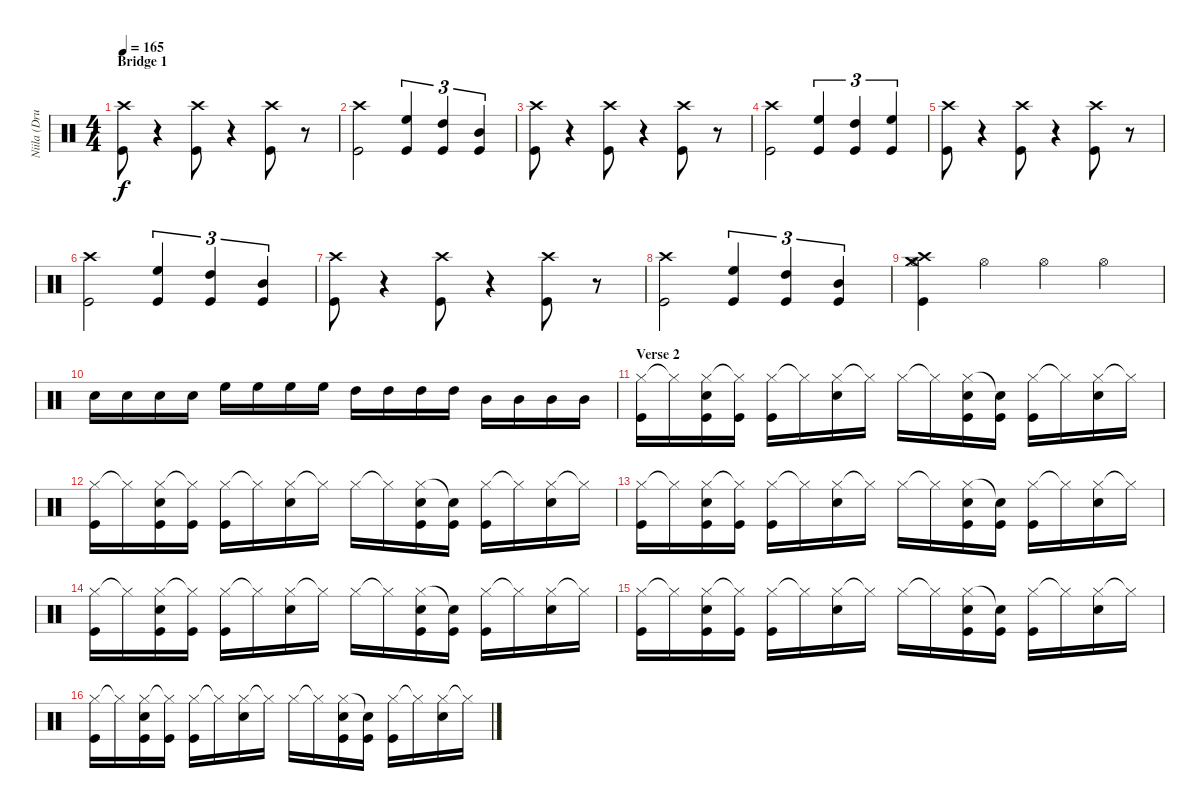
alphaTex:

\track ("Niila (Drums)" "Niila (Dru") {instrument percussion}
\staff {score}
\articulation defaults
\ts (4 4)
\section ("" "Bridge 1")
\tempo 165
\clef neutral
\ks c
("Crash high (hit)" "Kick (hit)").8{dy f} r.4 ("Crash high (hit)" "Kick (hit)").8 r.4 ("Crash high (hit)" "Kick (hit)").8 r.8 |
("Crash high (hit)" "Kick (hit)").2 ("High Floor Tom (hit)" "Kick (hit)").4{tu (3 2)} ("High Tom (hit)" "Kick (hit)").4{tu (3 2)} ("Mid Tom (hit)" "Kick (hit)").4{tu (3 2)} |
("Crash high (hit)" "Kick (hit)").8 r.4 ("Crash high (hit)" "Kick (hit)").8 r.4 ("Crash high (hit)" "Kick (hit)").8 r.8 |
("Crash high (hit)" "Kick (hit)").2 ("High Floor Tom (hit)" "Kick (hit)").4{tu (3 2)} ("High Tom (hit)" "Kick (hit)").4{tu (3 2)} ("High Floor Tom (hit)" "Kick (hit)").4{tu (3 2)} |
("Crash high (hit)" "Kick (hit)").8 r.4 ("Crash high (hit)" "Kick (hit)").8 r.4 ("Crash high (hit)" "Kick (hit)").8 r.8 |
("Crash high (hit)" "Kick (hit)").2 ("High Floor Tom (hit)" "Kick (hit)").4{tu (3 2)} ("High Tom (hit)" "Kick (hit)").4{tu (3 2)} ("Mid Tom (hit)" "Kick (hit)").4{tu (3 2)} |
("Crash high (hit)" "Kick (hit)").8 r.4 ("Crash high (hit)" "Kick (hit)").8 r.4 ("Crash high (hit)" "Kick (hit)").8 r.8 |
("Crash high (hit)" "Kick (hit)").2 ("High Floor Tom (hit)" "Kick (hit)").4{tu (3 2)} ("High Tom (hit)" "Kick (hit)").4{tu (3 2)} ("Mid Tom (hit)" "Kick (hit)").4{tu (3 2)} |
("Crash medium (hit)" "Crash high (hit)" "Hi-Hat (open)" "Kick (hit)").4 "Hi-Hat (open)".4 "Hi-Hat (open)".4 "Hi-Hat (open)".4 |
"Snare (hit) 2".16 "Snare (hit) 2".16 "Snare (hit) 2".16 "Snare (hit) 2".16 "High Floor Tom (hit)".16 "High Floor Tom (hit)".16 "High Floor Tom (hit)".16 "High Floor Tom (hit)".16 "High Tom (hit)".16 "High Tom (hit)".16 "High Tom (hit)".16 "High Tom (hit)".16 "Mid Tom (hit)".16 "Mid Tom (hit)".16 "Mid Tom (hit)".16 "Mid Tom (hit)".16 |
\section ("" "Verse 2")
("Hi-Hat (closed)" "Kick (hit)").16 "Hi-Hat (closed)"{t}.16 ("Hi-Hat (closed)" "Snare (hit) 2" "Kick (hit)").16 ("Hi-Hat (closed)"{t} "Kick (hit)").16 ("Hi-Hat (closed)" "Kick (hit)").16 "Hi-Hat (closed)"{t}.16 ("Hi-Hat (closed)" "Snare (hit) 2").16 "Hi-Hat (closed)"{t}.16 "Hi-Hat (closed)".16 "Hi-Hat (closed)"{t}.16 ("Hi-Hat (closed)" "Snare (hit) 2" "Kick (hit)").16 ("Snare (hit)"{t} "Kick (hit)").16 ("Hi-Hat (closed)" "Kick (hit)").16 "Hi-Hat (closed)"{t}.16 ("Hi-Hat (closed)" "Snare (hit) 2").16 "Hi-Hat (closed)"{t}.16 |
("Hi-Hat (closed)" "Kick (hit)").16 "Hi-Hat (closed)"{t}.16 ("Hi-Hat (closed)" "Snare (hit) 2" "Kick (hit)").16 ("Hi-Hat (closed)"{t} "Kick (hit)").16 ("Hi-Hat (closed)" "Kick (hit)").16 "Hi-Hat (closed)"{t}.16 ("Hi-Hat (closed)" "Snare (hit) 2").16 "Hi-Hat (closed)"{t}.16 "Hi-Hat (closed)".16 "Hi-Hat (closed)"{t}.16 ("Hi-Hat (closed)" "Snare (hit) 2" "Kick (hit)").16 ("Snare (hit)"{t} "Kick (hit)").16 ("Hi-Hat (closed)" "Kick (hit)").16 "Hi-Hat (closed)"{t}.16 ("Hi-Hat (closed)" "Snare (hit) 2").16 "Hi-Hat (closed)"{t}.16 |
("Hi-Hat (closed)" "Kick (hit)").16 "Hi-Hat (closed)"{t}.16 ("Hi-Hat (closed)" "Snare (hit) 2" "Kick (hit)").16 ("Hi-Hat (closed)"{t} "Kick (hit)").16 ("Hi-Hat (closed)" "Kick (hit)").16 "Hi-Hat (closed)"{t}.16 ("Hi-Hat (closed)" "Snare (hit) 2").16 "Hi-Hat (closed)"{t}.16 "Hi-Hat (closed)".16 "Hi-Hat (closed)"{t}.16 ("Hi-Hat (closed)" "Snare (hit) 2" "Kick (hit)").16 ("Snare (hit)"{t} "Kick (hit)").16 ("Hi-Hat (closed)" "Kick (hit)").16 "Hi-Hat (closed)"{t}.16 ("Hi-Hat (closed)" "Snare (hit) 2").16 "Hi-Hat (closed)"{t}.16 |
("Hi-Hat (closed)" "Kick (hit)").16 "Hi-Hat (closed)"{t}.16 ("Hi-Hat (closed)" "Snare (hit) 2" "Kick (hit)").16 ("Hi-Hat (closed)"{t} "Kick (hit)").16 ("Hi-Hat (closed)" "Kick (hit)").16 "Hi-Hat (closed)"{t}.16 ("Hi-Hat (closed)" "Snare (hit) 2").16 "Hi-Hat (closed)"{t}.16 "Hi-Hat (closed)".16 "Hi-Hat (closed)"{t}.16 ("Hi-Hat (closed)" "Snare (hit) 2" "Kick (hit)").16 ("Snare (hit)"{t} "Kick (hit)").16 ("Hi-Hat (closed)" "Kick (hit)").16 "Hi-Hat (closed)"{t}.16 ("Hi-Hat (closed)" "Snare (hit) 2").16 "Hi-Hat (closed)"{t}.16 |
("Hi-Hat (closed)" "Kick (hit)").16 "Hi-Hat (closed)"{t}.16 ("Hi-Hat (closed)" "Snare (hit) 2" "Kick (hit)").16 ("Hi-Hat (closed)"{t} "Kick (hit)").16 ("Hi-Hat (closed)" "Kick (hit)").16 "Hi-Hat (closed)"{t}.16 ("Hi-Hat (closed)" "Snare (hit) 2").16 "Hi-Hat (closed)"{t}.16 "Hi-Hat (closed)".16 "Hi-Hat (closed)"{t}.16 ("Hi-Hat (closed)" "Snare (hit) 2" "Kick (hit)").16 ("Snare (hit)"{t} "Kick (hit)").16 ("Hi-Hat (closed)" "Kick (hit)").16 "Hi-Hat (closed)"{t}.16 ("Hi-Hat (closed)" "Snare (hit) 2").16 "Hi-Hat (closed)"{t}.16 |
("Hi-Hat (closed)" "Kick (hit)").16 "Hi-Hat (closed)"{t}.16 ("Hi-Hat (closed)" "Snare (hit) 2" "Kick (hit)").16 ("Hi-Hat (closed)"{t} "Kick (hit)").16 ("Hi-Hat (closed)" "Kick (hit)").16 "Hi-Hat (closed)"{t}.16 ("Hi-Hat (closed)" "Snare (hit) 2").16 "Hi-Hat (closed)"{t}.16 "Hi-Hat (closed)".16 "Hi-Hat (closed)"{t}.16 ("Hi-Hat (closed)" "Snare (hit) 2" "Kick (hit)").16 ("Snare (hit)"{t} "Kick (hit)").16 ("Hi-Hat (closed)" "Kick (hit)").16 "Hi-Hat (closed)"{t}.16 ("Hi-Hat (closed)" "Snare (hit) 2").16 "Hi-Hat (closed)"{t}.16
